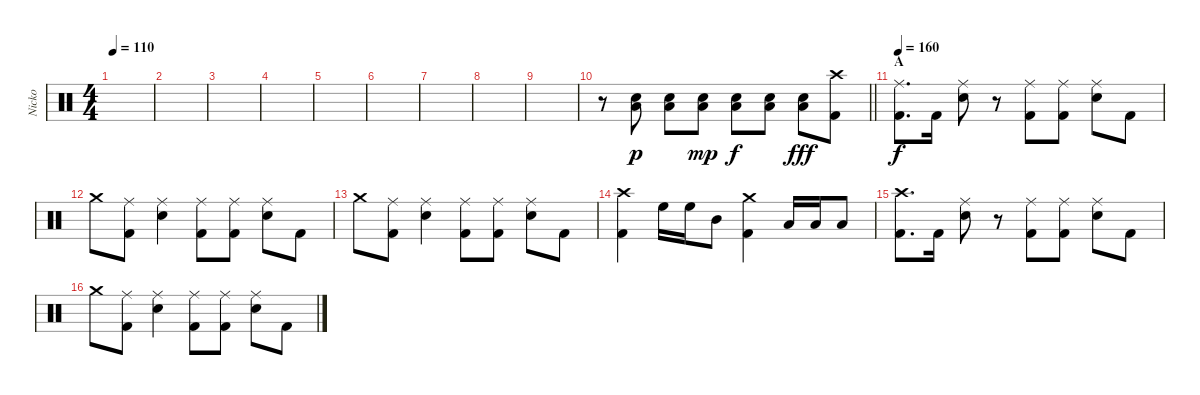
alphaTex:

\track ("Nicko" "Nicko") {instrument percussion}
\staff {score}
\articulation defaults
\ts (4 4)
\tempo 110
\clef neutral
\ks c
|
|
|
|
|
|
|
|
|
\barLineRight lightlight
r.8 ("Snare (hit) 2" "Low Floor Tom (hit)").8{dy p} ("Snare (hit) 2" "Low Floor Tom (hit)").8 ("Snare (hit) 2" "Low Floor Tom (hit)").8{dy mp} ("Snare (hit) 2" "Low Floor Tom (hit)").8{dy f} ("Snare (hit) 2" "Low Floor Tom (hit)").8 ("Snare (hit) 2" "Low Floor Tom (hit)").8{dy fff} ("Crash high (hit)" "Kick (hit) 2").8 |
\section ("" "A")
\tempo 160
("Ride (middle)" "Kick (hit) 2").8{d dy f} "Kick (hit) 2".16 ("Ride (middle)" "Snare (hit) 2").8 r.8 ("Ride (middle)" "Kick (hit) 2").8 ("Ride (middle)" "Kick (hit) 2").8 ("Ride (middle)" "Snare (hit) 2").8 "Kick (hit) 2".8 |
"Crash medium (hit)".8 ("Ride (middle)" "Kick (hit) 2").8 ("Ride (middle)" "Snare (hit) 2").4 ("Ride (middle)" "Kick (hit) 2").8 ("Ride (middle)" "Kick (hit) 2").8 ("Ride (middle)" "Snare (hit) 2").8 "Kick (hit) 2".8 |
"Crash medium (hit)".8 ("Ride (middle)" "Kick (hit) 2").8 ("Ride (middle)" "Snare (hit) 2").4 ("Ride (middle)" "Kick (hit) 2").8 ("Ride (middle)" "Kick (hit) 2").8 ("Ride (middle)" "Snare (hit) 2").8 "Kick (hit) 2".8 |
("Crash high (hit)" "Kick (hit) 2").4 "High Floor Tom (hit)".16 "High Floor Tom (hit)".16 "Mid Tom (hit)".8 ("Crash medium (hit)" "Kick (hit) 2").4 "Low Tom (hit)".16 "Low Tom (hit)".16 "Low Floor Tom (hit)".8 |
("Crash high (hit)" "Kick (hit) 2").8{d} "Kick (hit) 2".16 ("Ride (middle)" "Snare (hit) 2").8 r.8 ("Ride (middle)" "Kick (hit) 2").8 ("Ride (middle)" "Kick (hit) 2").8 ("Ride (middle)" "Snare (hit) 2").8 "Kick (hit) 2".8 |
"Crash medium (hit)".8 ("Ride (middle)" "Kick (hit) 2").8 ("Ride (middle)" "Snare (hit) 2").4 ("Ride (middle)" "Kick (hit) 2").8 ("Ride (middle)" "Kick (hit) 2").8 ("Ride (middle)" "Snare (hit) 2").8 "Kick (hit) 2".8
